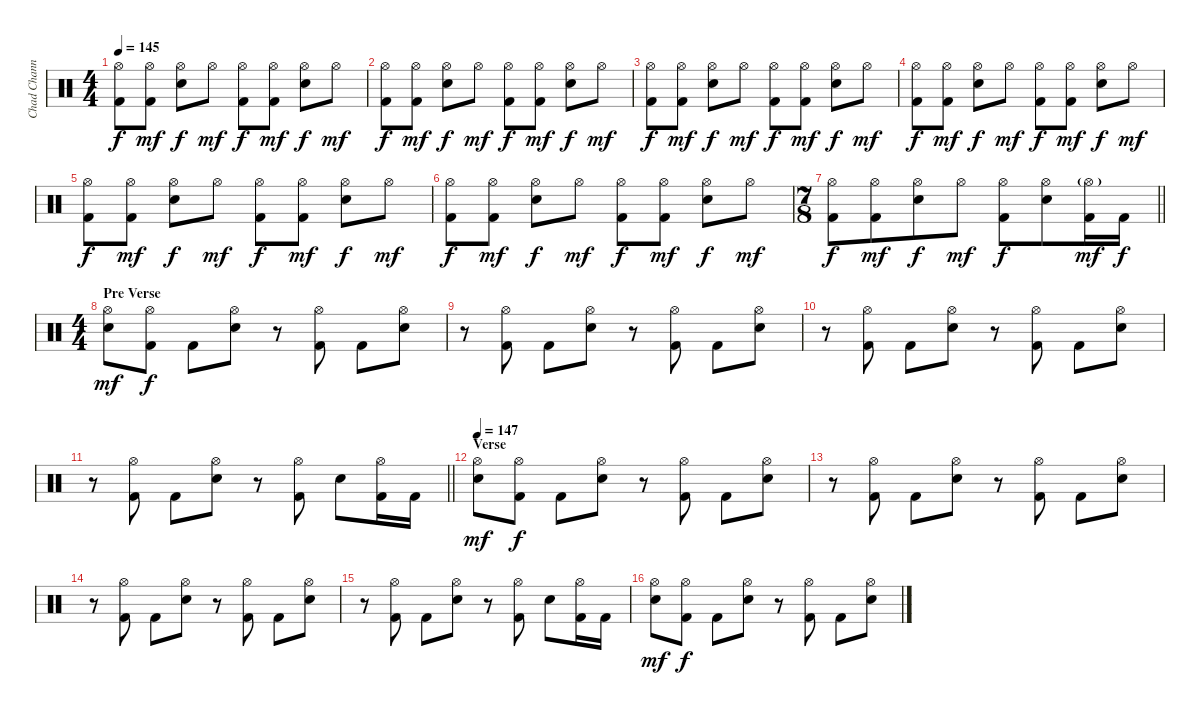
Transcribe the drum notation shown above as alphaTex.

\track ("Chad Channing" "Chad Chann") {instrument percussion}
\staff {score}
\articulation defaults
\ts (4 4)
\tempo 145
\clef neutral
\ks c
("Kick (hit) 2" "Hi-Hat (open)").8{dy f} ("Kick (hit) 2" "Hi-Hat (open)").8{dy mf} ("Electric Snare (hit)" "Hi-Hat (open)").8{dy f} "Hi-Hat (open)".8{dy mf} ("Kick (hit) 2" "Hi-Hat (open)").8{dy f} ("Kick (hit) 2" "Hi-Hat (open)").8{dy mf} ("Electric Snare (hit)" "Hi-Hat (open)").8{dy f} "Hi-Hat (open)".8{dy mf} |
("Kick (hit) 2" "Hi-Hat (open)").8{dy f} ("Kick (hit) 2" "Hi-Hat (open)").8{dy mf} ("Electric Snare (hit)" "Hi-Hat (open)").8{dy f} "Hi-Hat (open)".8{dy mf} ("Kick (hit) 2" "Hi-Hat (open)").8{dy f} ("Kick (hit) 2" "Hi-Hat (open)").8{dy mf} ("Electric Snare (hit)" "Hi-Hat (open)").8{dy f} "Hi-Hat (open)".8{dy mf} |
("Kick (hit) 2" "Hi-Hat (open)").8{dy f} ("Kick (hit) 2" "Hi-Hat (open)").8{dy mf} ("Electric Snare (hit)" "Hi-Hat (open)").8{dy f} "Hi-Hat (open)".8{dy mf} ("Kick (hit) 2" "Hi-Hat (open)").8{dy f} ("Kick (hit) 2" "Hi-Hat (open)").8{dy mf} ("Electric Snare (hit)" "Hi-Hat (open)").8{dy f} "Hi-Hat (open)".8{dy mf} |
("Kick (hit) 2" "Hi-Hat (open)").8{dy f} ("Kick (hit) 2" "Hi-Hat (open)").8{dy mf} ("Electric Snare (hit)" "Hi-Hat (open)").8{dy f} "Hi-Hat (open)".8{dy mf} ("Kick (hit) 2" "Hi-Hat (open)").8{dy f} ("Kick (hit) 2" "Hi-Hat (open)").8{dy mf} ("Electric Snare (hit)" "Hi-Hat (open)").8{dy f} "Hi-Hat (open)".8{dy mf} |
("Kick (hit) 2" "Hi-Hat (open)").8{dy f} ("Kick (hit) 2" "Hi-Hat (open)").8{dy mf} ("Electric Snare (hit)" "Hi-Hat (open)").8{dy f} "Hi-Hat (open)".8{dy mf} ("Kick (hit) 2" "Hi-Hat (open)").8{dy f} ("Kick (hit) 2" "Hi-Hat (open)").8{dy mf} ("Electric Snare (hit)" "Hi-Hat (open)").8{dy f} "Hi-Hat (open)".8{dy mf} |
("Kick (hit) 2" "Hi-Hat (open)").8{dy f} ("Kick (hit) 2" "Hi-Hat (open)").8{dy mf} ("Electric Snare (hit)" "Hi-Hat (open)").8{dy f} "Hi-Hat (open)".8{dy mf} ("Kick (hit) 2" "Hi-Hat (open)").8{dy f} ("Kick (hit) 2" "Hi-Hat (open)").8{dy mf} ("Electric Snare (hit)" "Hi-Hat (open)").8{dy f} "Hi-Hat (open)".8{dy mf} |
\ts (7 8)
\barLineRight lightlight
("Kick (hit) 2" "Hi-Hat (open)").8{dy f} ("Kick (hit) 2" "Hi-Hat (open)").8{dy mf} ("Electric Snare (hit)" "Hi-Hat (open)").8{dy f} "Hi-Hat (open)".8{dy mf} ("Kick (hit) 2" "Hi-Hat (open)").8{dy f} ("Electric Snare (hit)" "Hi-Hat (open)").8 ("Kick (hit) 2" "Hi-Hat (open)"{g}).16{dy mf} "Kick (hit) 2".16{dy f} |
\ts (4 4)
\section ("" "Pre Verse")
("Electric Snare (hit)" "Hi-Hat (open)").8{dy mf} ("Kick (hit) 2" "Hi-Hat (open)").8{dy f} "Kick (hit) 2".8 ("Electric Snare (hit)" "Hi-Hat (open)").8 r.8 ("Kick (hit) 2" "Hi-Hat (open)").8 "Kick (hit) 2".8 ("Electric Snare (hit)" "Hi-Hat (open)").8 |
r.8 ("Kick (hit) 2" "Hi-Hat (open)").8 "Kick (hit) 2".8 ("Electric Snare (hit)" "Hi-Hat (open)").8 r.8 ("Kick (hit) 2" "Hi-Hat (open)").8 "Kick (hit) 2".8 ("Electric Snare (hit)" "Hi-Hat (open)").8 |
r.8 ("Kick (hit) 2" "Hi-Hat (open)").8 "Kick (hit) 2".8 ("Electric Snare (hit)" "Hi-Hat (open)").8 r.8 ("Kick (hit) 2" "Hi-Hat (open)").8 "Kick (hit) 2".8 ("Electric Snare (hit)" "Hi-Hat (open)").8 |
\barLineRight lightlight
r.8 ("Kick (hit) 2" "Hi-Hat (open)").8 "Kick (hit) 2".8 ("Electric Snare (hit)" "Hi-Hat (open)").8 r.8 ("Kick (hit) 2" "Hi-Hat (open)").8 "Electric Snare (hit)".8 ("Kick (hit) 2" "Hi-Hat (open)").16 "Kick (hit) 2".16 |
\section ("" "Verse")
\tempo 147
("Electric Snare (hit)" "Hi-Hat (open)").8{dy mf} ("Kick (hit) 2" "Hi-Hat (open)").8{dy f} "Kick (hit) 2".8 ("Electric Snare (hit)" "Hi-Hat (open)").8 r.8 ("Kick (hit) 2" "Hi-Hat (open)").8 "Kick (hit) 2".8 ("Electric Snare (hit)" "Hi-Hat (open)").8 |
r.8 ("Kick (hit) 2" "Hi-Hat (open)").8 "Kick (hit) 2".8 ("Electric Snare (hit)" "Hi-Hat (open)").8 r.8 ("Kick (hit) 2" "Hi-Hat (open)").8 "Kick (hit) 2".8 ("Electric Snare (hit)" "Hi-Hat (open)").8 |
r.8 ("Kick (hit) 2" "Hi-Hat (open)").8 "Kick (hit) 2".8 ("Electric Snare (hit)" "Hi-Hat (open)").8 r.8 ("Kick (hit) 2" "Hi-Hat (open)").8 "Kick (hit) 2".8 ("Electric Snare (hit)" "Hi-Hat (open)").8 |
r.8 ("Kick (hit) 2" "Hi-Hat (open)").8 "Kick (hit) 2".8 ("Electric Snare (hit)" "Hi-Hat (open)").8 r.8 ("Kick (hit) 2" "Hi-Hat (open)").8 "Electric Snare (hit)".8 ("Kick (hit) 2" "Hi-Hat (open)").16 "Kick (hit) 2".16 |
("Electric Snare (hit)" "Hi-Hat (open)").8{dy mf} ("Kick (hit) 2" "Hi-Hat (open)").8{dy f} "Kick (hit) 2".8 ("Electric Snare (hit)" "Hi-Hat (open)").8 r.8 ("Kick (hit) 2" "Hi-Hat (open)").8 "Kick (hit) 2".8 ("Electric Snare (hit)" "Hi-Hat (open)").8
